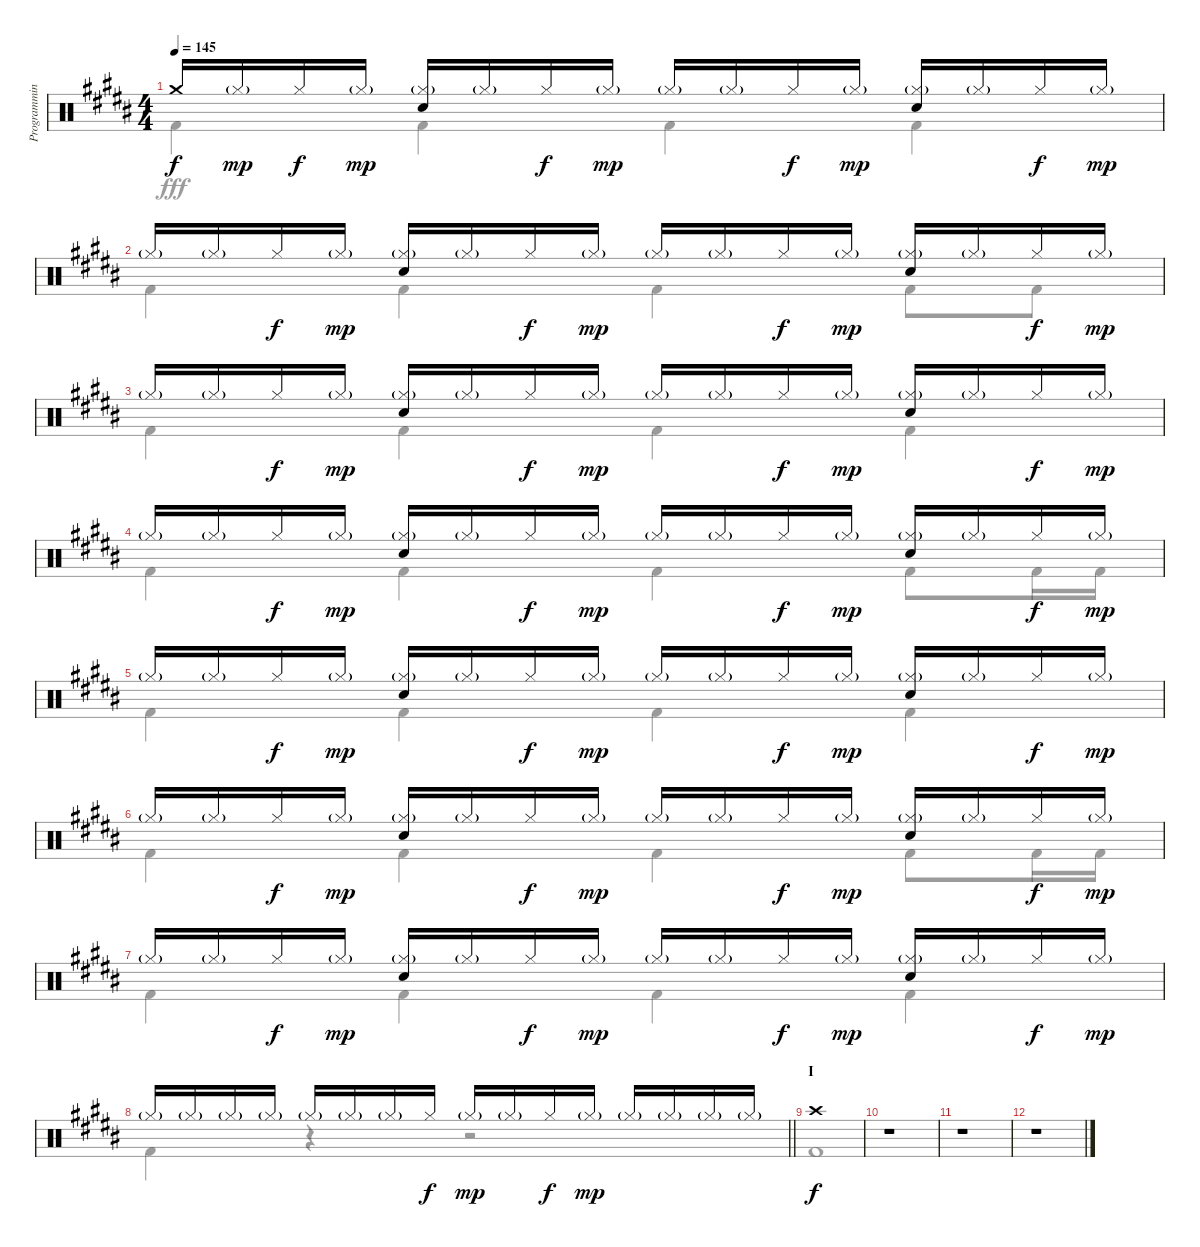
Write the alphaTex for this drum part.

\track ("Programming Drums I" "Programmin") {instrument percussion}
\staff {score}
\articulation defaults
\voice
\ts (4 4)
\tempo 145
\clef neutral
\ks b "Crash medium (hit)".16{dy f} "Hi-Hat (closed)"{g}.16{dy mp} "Hi-Hat (closed)".16{dy f} "Hi-Hat (closed)"{g}.16{dy mp}
("Hi-Hat (closed)"{g} "Snare (hit) 2").16 "Hi-Hat (closed)"{g}.16 "Hi-Hat (closed)".16{dy f} "Hi-Hat (closed)"{g}.16{dy mp} "Hi-Hat (closed)"{g}.16 "Hi-Hat (closed)"{g}.16 "Hi-Hat (closed)".16{dy f} "Hi-Hat (closed)"{g}.16{dy mp} ("Hi-Hat (closed)"{g} "Snare (hit) 2").16 "Hi-Hat (closed)"{g}.16 "Hi-Hat (closed)".16{dy f} "Hi-Hat (closed)"{g}.16{dy mp} |
"Hi-Hat (closed)"{g}.16 "Hi-Hat (closed)"{g}.16 "Hi-Hat (closed)".16{dy f} "Hi-Hat (closed)"{g}.16{dy mp} ("Hi-Hat (closed)"{g} "Snare (hit) 2").16 "Hi-Hat (closed)"{g}.16 "Hi-Hat (closed)".16{dy f} "Hi-Hat (closed)"{g}.16{dy mp} "Hi-Hat (closed)"{g}.16 "Hi-Hat (closed)"{g}.16 "Hi-Hat (closed)".16{dy f} "Hi-Hat (closed)"{g}.16{dy mp} ("Hi-Hat (closed)"{g} "Snare (hit) 2").16 "Hi-Hat (closed)"{g}.16 "Hi-Hat (closed)".16{dy f} "Hi-Hat (closed)"{g}.16{dy mp} |
"Hi-Hat (closed)"{g}.16 "Hi-Hat (closed)"{g}.16 "Hi-Hat (closed)".16{dy f} "Hi-Hat (closed)"{g}.16{dy mp} ("Hi-Hat (closed)"{g} "Snare (hit) 2").16 "Hi-Hat (closed)"{g}.16 "Hi-Hat (closed)".16{dy f} "Hi-Hat (closed)"{g}.16{dy mp} "Hi-Hat (closed)"{g}.16 "Hi-Hat (closed)"{g}.16 "Hi-Hat (closed)".16{dy f} "Hi-Hat (closed)"{g}.16{dy mp} ("Hi-Hat (closed)"{g} "Snare (hit) 2").16 "Hi-Hat (closed)"{g}.16 "Hi-Hat (closed)".16{dy f} "Hi-Hat (closed)"{g}.16{dy mp} |
"Hi-Hat (closed)"{g}.16 "Hi-Hat (closed)"{g}.16 "Hi-Hat (closed)".16{dy f} "Hi-Hat (closed)"{g}.16{dy mp} ("Hi-Hat (closed)"{g} "Snare (hit) 2").16 "Hi-Hat (closed)"{g}.16 "Hi-Hat (closed)".16{dy f} "Hi-Hat (closed)"{g}.16{dy mp} "Hi-Hat (closed)"{g}.16 "Hi-Hat (closed)"{g}.16 "Hi-Hat (closed)".16{dy f} "Hi-Hat (closed)"{g}.16{dy mp} ("Hi-Hat (closed)"{g} "Snare (hit) 2").16 "Hi-Hat (closed)"{g}.16 "Hi-Hat (closed)".16{dy f} "Hi-Hat (closed)"{g}.16{dy mp} |
"Hi-Hat (closed)"{g}.16 "Hi-Hat (closed)"{g}.16 "Hi-Hat (closed)".16{dy f} "Hi-Hat (closed)"{g}.16{dy mp} ("Hi-Hat (closed)"{g} "Snare (hit) 2").16 "Hi-Hat (closed)"{g}.16 "Hi-Hat (closed)".16{dy f} "Hi-Hat (closed)"{g}.16{dy mp} "Hi-Hat (closed)"{g}.16 "Hi-Hat (closed)"{g}.16 "Hi-Hat (closed)".16{dy f} "Hi-Hat (closed)"{g}.16{dy mp} ("Hi-Hat (closed)"{g} "Snare (hit) 2").16 "Hi-Hat (closed)"{g}.16 "Hi-Hat (closed)".16{dy f} "Hi-Hat (closed)"{g}.16{dy mp} |
"Hi-Hat (closed)"{g}.16 "Hi-Hat (closed)"{g}.16 "Hi-Hat (closed)".16{dy f} "Hi-Hat (closed)"{g}.16{dy mp} ("Hi-Hat (closed)"{g} "Snare (hit) 2").16 "Hi-Hat (closed)"{g}.16 "Hi-Hat (closed)".16{dy f} "Hi-Hat (closed)"{g}.16{dy mp} "Hi-Hat (closed)"{g}.16 "Hi-Hat (closed)"{g}.16 "Hi-Hat (closed)".16{dy f} "Hi-Hat (closed)"{g}.16{dy mp} ("Hi-Hat (closed)"{g} "Snare (hit) 2").16 "Hi-Hat (closed)"{g}.16 "Hi-Hat (closed)".16{dy f} "Hi-Hat (closed)"{g}.16{dy mp} |
"Hi-Hat (closed)"{g}.16 "Hi-Hat (closed)"{g}.16 "Hi-Hat (closed)".16{dy f} "Hi-Hat (closed)"{g}.16{dy mp} ("Hi-Hat (closed)"{g} "Snare (hit) 2").16 "Hi-Hat (closed)"{g}.16 "Hi-Hat (closed)".16{dy f} "Hi-Hat (closed)"{g}.16{dy mp} "Hi-Hat (closed)"{g}.16 "Hi-Hat (closed)"{g}.16 "Hi-Hat (closed)".16{dy f} "Hi-Hat (closed)"{g}.16{dy mp} ("Hi-Hat (closed)"{g} "Snare (hit) 2").16 "Hi-Hat (closed)"{g}.16 "Hi-Hat (closed)".16{dy f} "Hi-Hat (closed)"{g}.16{dy mp} |
\barLineRight lightlight "Hi-Hat (closed)"{g}.16 "Hi-Hat (closed)"{g}.16 "Hi-Hat (closed)"{g}.16 "Hi-Hat (closed)"{g}.16 "Hi-Hat (closed)"{g}.16 "Hi-Hat (closed)"{g}.16 "Hi-Hat (closed)"{g}.16 "Hi-Hat (closed)".16{dy f} "Hi-Hat (closed)"{g}.16{dy mp} "Hi-Hat (closed)"{g}.16 "Hi-Hat (closed)".16{dy f} "Hi-Hat (closed)"{g}.16{dy mp} "Hi-Hat (closed)"{g}.16 "Hi-Hat (closed)"{g}.16 "Hi-Hat (closed)"{g}.16 "Hi-Hat (closed)"{g}.16
|
\section ("" "I")
"Crash high (hit)".1{dy f} |
r.1 |
r.1 |
r.1
\voice
\clef neutral
\ottava regular
\simile none
\ks b "Kick (hit) 2".4{dy fff} "Kick (hit) 2".4 "Kick (hit) 2".4 "Kick (hit) 2".4
|
"Kick (hit) 2".4 "Kick (hit) 2".4 "Kick (hit) 2".4 "Kick (hit) 2".8 "Kick (hit) 2".8 |
"Kick (hit) 2".4 "Kick (hit) 2".4 "Kick (hit) 2".4 "Kick (hit) 2".4 |
"Kick (hit) 2".4 "Kick (hit) 2".4 "Kick (hit) 2".4 "Kick (hit) 2".8 "Kick (hit) 2".16 "Kick (hit) 2".16 |
"Kick (hit) 2".4 "Kick (hit) 2".4 "Kick (hit) 2".4 "Kick (hit) 2".4 |
"Kick (hit) 2".4 "Kick (hit) 2".4 "Kick (hit) 2".4 "Kick (hit) 2".8 "Kick (hit) 2".16 "Kick (hit) 2".16 |
"Kick (hit) 2".4 "Kick (hit) 2".4 "Kick (hit) 2".4 "Kick (hit) 2".4 |
\barLineRight lightlight "Kick (hit) 2".4
r.4 r.2 |
"Kick (hit) 2".1 |
r.1 |
r.1 |
r.1
